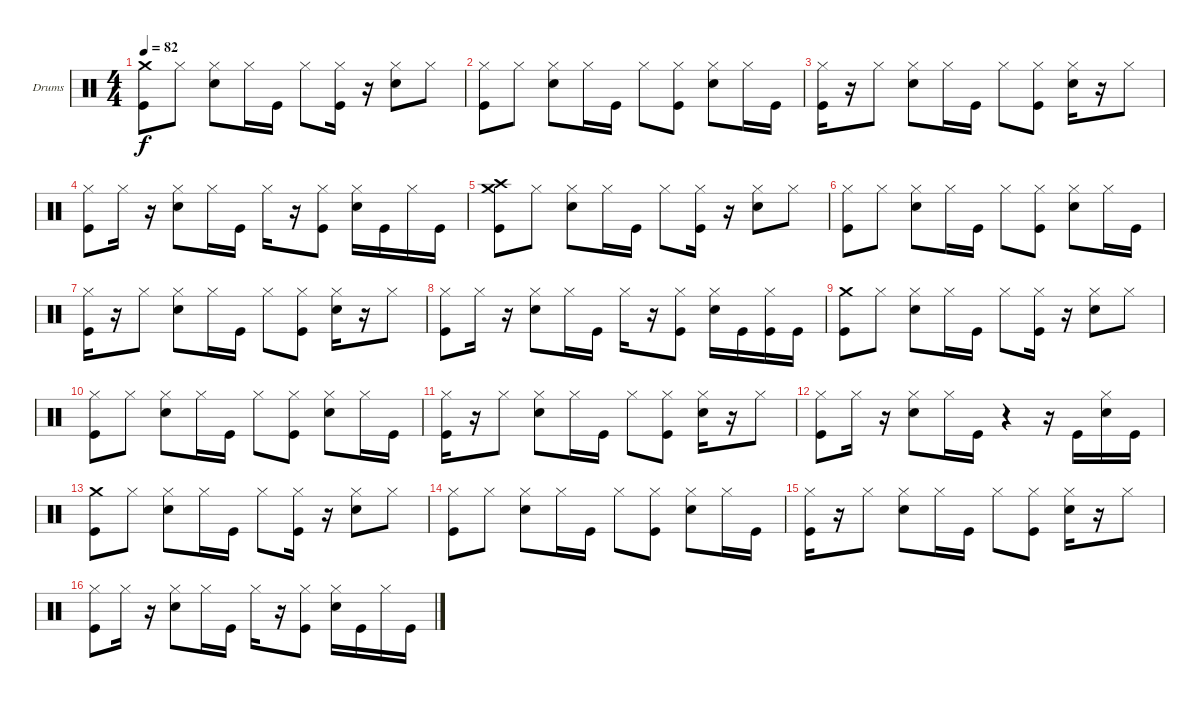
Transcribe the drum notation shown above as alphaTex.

\bracketExtendMode groupsimilarinstruments
\firstSystemTrackNameOrientation horizontal
\otherSystemsTrackNameOrientation horizontal
\track ("Drumkit" "Drums") {instrument percussion}
\staff {score}
\articulation defaults
\ts (4 4)
\tempo 82
\clef neutral
\ks c
("Kick (hit)" "Crash medium (hit)").8{dy f} "Hi-Hat (closed)".8 ("Hi-Hat (closed)" "Snare (hit) 2").8 "Hi-Hat (closed)".16 "Kick (hit)".16 "Hi-Hat (closed)".8 ("Kick (hit)" "Hi-Hat (closed)").16 r.16 ("Snare (hit) 2" "Hi-Hat (closed)").8 "Hi-Hat (closed)".8 |
("Kick (hit)" "Hi-Hat (closed)").8 "Hi-Hat (closed)".8 ("Hi-Hat (closed)" "Snare (hit) 2").8 "Hi-Hat (closed)".16 "Kick (hit)".16 "Hi-Hat (closed)".8 ("Kick (hit)" "Hi-Hat (closed)").8 ("Snare (hit) 2" "Hi-Hat (closed)").8 "Hi-Hat (closed)".16 "Kick (hit)".16 |
("Kick (hit)" "Hi-Hat (closed)").16 r.16 "Hi-Hat (closed)".8 ("Hi-Hat (closed)" "Snare (hit) 2").8 "Hi-Hat (closed)".16 "Kick (hit)".16 "Hi-Hat (closed)".8 ("Kick (hit)" "Hi-Hat (closed)").8 ("Snare (hit) 2" "Hi-Hat (closed)").16 r.16 "Hi-Hat (closed)".8 |
("Kick (hit)" "Hi-Hat (closed)").8 "Hi-Hat (closed)".16 r.16 ("Hi-Hat (closed)" "Snare (hit) 2").8 "Hi-Hat (closed)".16 "Kick (hit)".16 "Hi-Hat (closed)".16 r.16 ("Kick (hit)" "Hi-Hat (closed)").8 ("Snare (hit) 2" "Hi-Hat (closed)").16 "Kick (hit)".16 "Hi-Hat (closed)".16 "Kick (hit)".16 |
("Crash high (hit)" "Kick (hit)" "Crash medium (hit)").8 "Hi-Hat (closed)".8 ("Hi-Hat (closed)" "Snare (hit) 2").8 "Hi-Hat (closed)".16 "Kick (hit)".16 "Hi-Hat (closed)".8 ("Kick (hit)" "Hi-Hat (closed)").16 r.16 ("Snare (hit) 2" "Hi-Hat (closed)").8 "Hi-Hat (closed)".8 |
("Kick (hit)" "Hi-Hat (closed)").8 "Hi-Hat (closed)".8 ("Hi-Hat (closed)" "Snare (hit) 2").8 "Hi-Hat (closed)".16 "Kick (hit)".16 "Hi-Hat (closed)".8 ("Kick (hit)" "Hi-Hat (closed)").8 ("Snare (hit) 2" "Hi-Hat (closed)").8 "Hi-Hat (closed)".16 "Kick (hit)".16 |
("Kick (hit)" "Hi-Hat (closed)").16 r.16 "Hi-Hat (closed)".8 ("Hi-Hat (closed)" "Snare (hit) 2").8 "Hi-Hat (closed)".16 "Kick (hit)".16 "Hi-Hat (closed)".8 ("Kick (hit)" "Hi-Hat (closed)").8 ("Snare (hit) 2" "Hi-Hat (closed)").16 r.16 "Hi-Hat (closed)".8 |
("Kick (hit)" "Hi-Hat (closed)").8 "Hi-Hat (closed)".16 r.16 ("Hi-Hat (closed)" "Snare (hit) 2").8 "Hi-Hat (closed)".16 "Kick (hit)".16 "Hi-Hat (closed)".16 r.16 ("Kick (hit)" "Hi-Hat (closed)").8 ("Snare (hit) 2" "Hi-Hat (closed)").16 "Kick (hit)".16 ("Kick (hit)" "Hi-Hat (closed)").16 "Kick (hit)".16 |
("Kick (hit)" "Crash medium (hit)").8 "Hi-Hat (closed)".8 ("Hi-Hat (closed)" "Snare (hit) 2").8 "Hi-Hat (closed)".16 "Kick (hit)".16 "Hi-Hat (closed)".8 ("Kick (hit)" "Hi-Hat (closed)").16 r.16 ("Snare (hit) 2" "Hi-Hat (closed)").8 "Hi-Hat (closed)".8 |
("Kick (hit)" "Hi-Hat (closed)").8 "Hi-Hat (closed)".8 ("Hi-Hat (closed)" "Snare (hit) 2").8 "Hi-Hat (closed)".16 "Kick (hit)".16 "Hi-Hat (closed)".8 ("Kick (hit)" "Hi-Hat (closed)").8 ("Snare (hit) 2" "Hi-Hat (closed)").8 "Hi-Hat (closed)".16 "Kick (hit)".16 |
("Kick (hit)" "Hi-Hat (closed)").16 r.16 "Hi-Hat (closed)".8 ("Hi-Hat (closed)" "Snare (hit) 2").8 "Hi-Hat (closed)".16 "Kick (hit)".16 "Hi-Hat (closed)".8 ("Kick (hit)" "Hi-Hat (closed)").8 ("Snare (hit) 2" "Hi-Hat (closed)").16 r.16 "Hi-Hat (closed)".8 |
("Kick (hit)" "Hi-Hat (closed)").8 "Hi-Hat (closed)".16 r.16 ("Hi-Hat (closed)" "Snare (hit) 2").8 "Hi-Hat (closed)".16 "Kick (hit)".16 r.4 r.16 "Kick (hit)".16 ("Snare (hit) 2" "Hi-Hat (closed)").16 "Kick (hit)".16 |
("Kick (hit)" "Crash medium (hit)").8 "Hi-Hat (closed)".8 ("Hi-Hat (closed)" "Snare (hit) 2").8 "Hi-Hat (closed)".16 "Kick (hit)".16 "Hi-Hat (closed)".8 ("Kick (hit)" "Hi-Hat (closed)").16 r.16 ("Snare (hit) 2" "Hi-Hat (closed)").8 "Hi-Hat (closed)".8 |
("Kick (hit)" "Hi-Hat (closed)").8 "Hi-Hat (closed)".8 ("Hi-Hat (closed)" "Snare (hit) 2").8 "Hi-Hat (closed)".16 "Kick (hit)".16 "Hi-Hat (closed)".8 ("Kick (hit)" "Hi-Hat (closed)").8 ("Snare (hit) 2" "Hi-Hat (closed)").8 "Hi-Hat (closed)".16 "Kick (hit)".16 |
("Kick (hit)" "Hi-Hat (closed)").16 r.16 "Hi-Hat (closed)".8 ("Hi-Hat (closed)" "Snare (hit) 2").8 "Hi-Hat (closed)".16 "Kick (hit)".16 "Hi-Hat (closed)".8 ("Kick (hit)" "Hi-Hat (closed)").8 ("Snare (hit) 2" "Hi-Hat (closed)").16 r.16 "Hi-Hat (closed)".8 |
("Kick (hit)" "Hi-Hat (closed)").8 "Hi-Hat (closed)".16 r.16 ("Hi-Hat (closed)" "Snare (hit) 2").8 "Hi-Hat (closed)".16 "Kick (hit)".16 "Hi-Hat (closed)".16 r.16 ("Kick (hit)" "Hi-Hat (closed)").8 ("Snare (hit) 2" "Hi-Hat (closed)").16 "Kick (hit)".16 "Hi-Hat (closed)".16 "Kick (hit)".16
